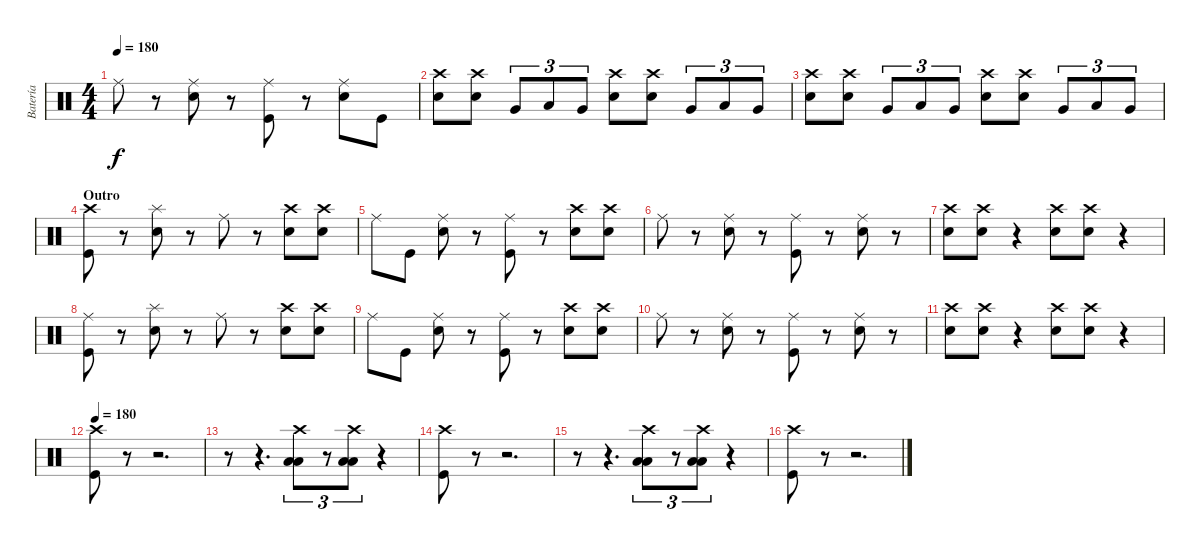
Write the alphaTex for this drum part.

\track ("Batería" "Batería") {instrument percussion}
\staff {score}
\articulation defaults
\ts (4 4)
\tempo 180
\clef neutral
\ks c "Ride (middle)".8{dy f}
r.8 ("Electric Snare (hit)" "Ride (middle)").8 r.8 ("Kick (hit)" "Ride (middle)").8 r.8 ("Electric Snare (hit)" "Ride (middle)").8 "Kick (hit)".8 |
("Crash high (hit)" "Electric Snare (hit)").8 ("Crash high (hit)" "Electric Snare (hit)").8 "Very Low Tom (hit)".8{tu (3 2)} "Low Floor Tom (hit)".8{tu (3 2)} "Very Low Tom (hit)".8{tu (3 2)} ("Crash high (hit)" "Electric Snare (hit)").8 ("Crash high (hit)" "Electric Snare (hit)").8 "Very Low Tom (hit)".8{tu (3 2)} "Low Floor Tom (hit)".8{tu (3 2)} "Very Low Tom (hit)".8{tu (3 2)} |
("Crash high (hit)" "Electric Snare (hit)").8 ("Crash high (hit)" "Electric Snare (hit)").8 "Very Low Tom (hit)".8{tu (3 2)} "Low Floor Tom (hit)".8{tu (3 2)} "Very Low Tom (hit)".8{tu (3 2)} ("Crash high (hit)" "Electric Snare (hit)").8 ("Crash high (hit)" "Electric Snare (hit)").8 "Very Low Tom (hit)".8{tu (3 2)} "Low Floor Tom (hit)".8{tu (3 2)} "Very Low Tom (hit)".8{tu (3 2)} |
\section ("" "Outro")
("Kick (hit)" "Crash high (hit)").8 r.8 ("Electric Snare (hit)" "Splash (hit)").8 r.8 "Ride (middle)".8 r.8 ("Electric Snare (hit)" "Crash high (hit)").8 ("Electric Snare (hit)" "Crash high (hit)").8 |
"Ride (middle)".8 "Kick (hit)".8 ("Electric Snare (hit)" "Ride (middle)").8 r.8 ("Kick (hit)" "Ride (middle)").8 r.8 ("Electric Snare (hit)" "Crash high (hit)").8 ("Electric Snare (hit)" "Crash high (hit)").8 |
"Ride (middle)".8 r.8 ("Electric Snare (hit)" "Ride (middle)").8 r.8 ("Kick (hit)" "Ride (middle)").8 r.8 ("Electric Snare (hit)" "Ride (middle)").8 r.8 |
("Crash high (hit)" "Electric Snare (hit)").8 ("Crash high (hit)" "Electric Snare (hit)").8 r.4 ("Crash high (hit)" "Electric Snare (hit)").8 ("Crash high (hit)" "Electric Snare (hit)").8 r.4 |
("Kick (hit)" "Ride (middle)").8 r.8 ("Electric Snare (hit)" "Splash (hit)").8 r.8 "Ride (middle)".8 r.8 ("Electric Snare (hit)" "Crash high (hit)").8 ("Electric Snare (hit)" "Crash high (hit)").8 |
"Ride (middle)".8 "Kick (hit)".8 ("Electric Snare (hit)" "Ride (middle)").8 r.8 ("Kick (hit)" "Ride (middle)").8 r.8 ("Electric Snare (hit)" "Crash high (hit)").8 ("Electric Snare (hit)" "Crash high (hit)").8 |
"Ride (middle)".8 r.8 ("Electric Snare (hit)" "Ride (middle)").8 r.8 ("Kick (hit)" "Ride (middle)").8 r.8 ("Electric Snare (hit)" "Ride (middle)").8 r.8 |
("Crash high (hit)" "Electric Snare (hit)").8 ("Crash high (hit)" "Electric Snare (hit)").8 r.4 ("Crash high (hit)" "Electric Snare (hit)").8 ("Crash high (hit)" "Electric Snare (hit)").8 r.4 |
\tempo 180
("Crash high (hit)" "Kick (hit)").8 r.8 r.2{d} |
r.8 r.4{d} ("Crash high (hit)" "Low Tom (hit)" "Low Tom (hit)").8{tu (3 2)} r.8{tu (3 2)} ("Crash high (hit)" "Low Tom (hit)" "Low Tom (hit)").8{tu (3 2)} r.4 |
("Crash high (hit)" "Kick (hit)").8 r.8 r.2{d} |
r.8 r.4{d} ("Crash high (hit)" "Low Tom (hit)" "Low Tom (hit)").8{tu (3 2)} r.8{tu (3 2)} ("Crash high (hit)" "Low Tom (hit)" "Low Tom (hit)").8{tu (3 2)} r.4 |
("Crash high (hit)" "Kick (hit)").8 r.8 r.2{d}
